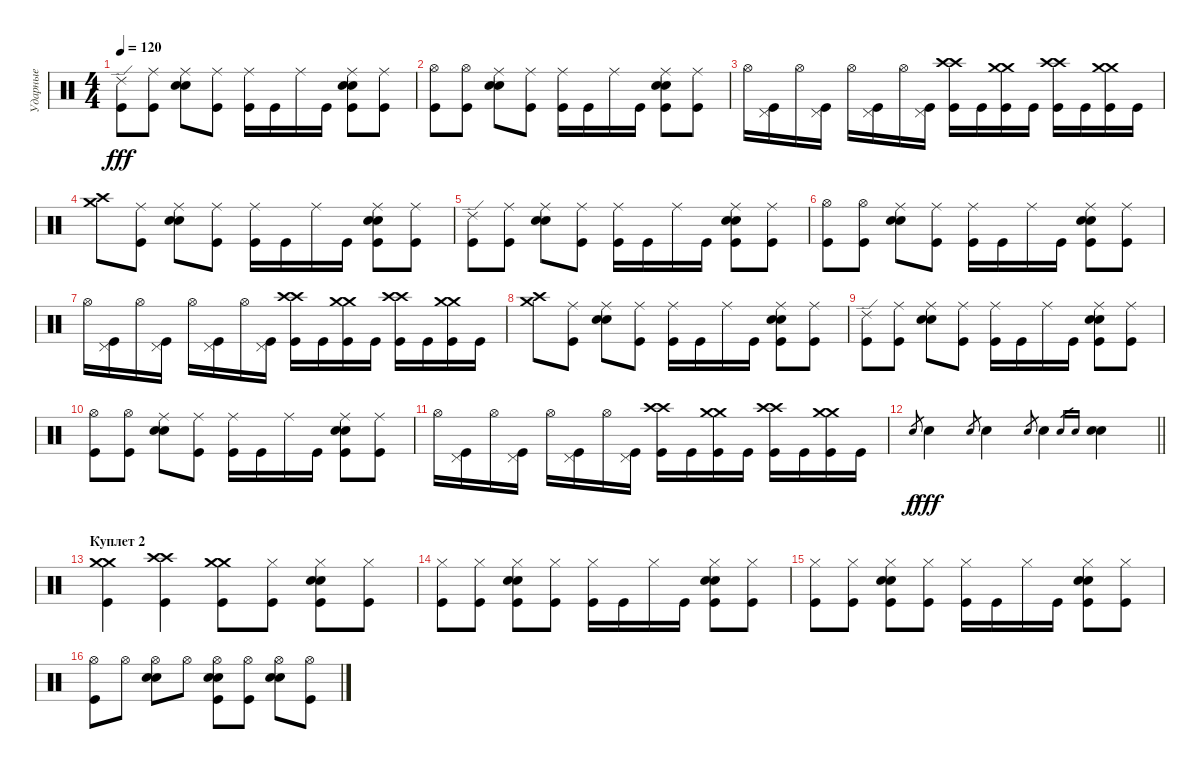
\track ("Ударные" "Ударные") {instrument percussion}
\staff {score}
\articulation defaults
\ts (4 4)
\tempo 120
\clef neutral
\ks c
("Ride (edge) 2" "Kick (hit)").8{dy fff} ("Ride (middle)" "Kick (hit)").8 ("Ride (middle)" "Snare (hit) 2" "Electric Snare (hit)").8 ("Ride (middle)" "Kick (hit)").8 ("Ride (middle)" "Kick (hit)").16 "Kick (hit)".16 "Ride (middle)".16 "Kick (hit)".16 ("Electric Snare (hit)" "Snare (hit) 2" "Ride (middle)" "Kick (hit)").8 ("Ride (middle)" "Kick (hit)").8 |
("Hi-Hat (open)" "Kick (hit)").8 ("Hi-Hat (open)" "Kick (hit)").8 ("Ride (middle)" "Snare (hit) 2" "Electric Snare (hit)").8 ("Ride (middle)" "Kick (hit)").8 ("Ride (middle)" "Kick (hit)").16 "Kick (hit)".16 "Ride (middle)".16 "Kick (hit)".16 ("Electric Snare (hit)" "Snare (hit) 2" "Ride (middle)" "Kick (hit)").8 ("Ride (middle)" "Kick (hit)").8 |
"Hi-Hat (open)".16 ("Kick (hit)" "Pedal Hi-Hat (hit)").16 "Hi-Hat (open)".16 ("Kick (hit)" "Pedal Hi-Hat (hit)").16 "Hi-Hat (open)".16 ("Pedal Hi-Hat (hit)" "Kick (hit)").16 "Hi-Hat (open)".16 ("Pedal Hi-Hat (hit)" "Kick (hit)").16 ("Kick (hit)" "Crash high (hit)" "Crash high (hit)").16 "Kick (hit)".16 ("Kick (hit)" "Crash medium (hit)" "Crash medium (hit)").16 "Kick (hit)".16 ("Kick (hit)" "Crash high (hit)" "Crash high (hit)").16 "Kick (hit)".16 ("Kick (hit)" "Crash medium (hit)" "Crash medium (hit)").16 "Kick (hit)".16 |
("Crash high (hit)" "Crash medium (hit)").8 ("Ride (middle)" "Kick (hit)").8 ("Ride (middle)" "Snare (hit) 2" "Electric Snare (hit)").8 ("Ride (middle)" "Kick (hit)").8 ("Ride (middle)" "Kick (hit)").16 "Kick (hit)".16 "Ride (middle)".16 "Kick (hit)".16 ("Electric Snare (hit)" "Snare (hit) 2" "Ride (middle)" "Kick (hit)").8 ("Ride (middle)" "Kick (hit)").8 |
("Ride (edge) 2" "Kick (hit)").8 ("Ride (middle)" "Kick (hit)").8 ("Ride (middle)" "Snare (hit) 2" "Electric Snare (hit)").8 ("Ride (middle)" "Kick (hit)").8 ("Ride (middle)" "Kick (hit)").16 "Kick (hit)".16 "Ride (middle)".16 "Kick (hit)".16 ("Electric Snare (hit)" "Snare (hit) 2" "Ride (middle)" "Kick (hit)").8 ("Ride (middle)" "Kick (hit)").8 |
("Hi-Hat (open)" "Kick (hit)").8 ("Hi-Hat (open)" "Kick (hit)").8 ("Ride (middle)" "Snare (hit) 2" "Electric Snare (hit)").8 ("Ride (middle)" "Kick (hit)").8 ("Ride (middle)" "Kick (hit)").16 "Kick (hit)".16 "Ride (middle)".16 "Kick (hit)".16 ("Electric Snare (hit)" "Snare (hit) 2" "Ride (middle)" "Kick (hit)").8 ("Ride (middle)" "Kick (hit)").8 |
"Hi-Hat (open)".16 ("Kick (hit)" "Pedal Hi-Hat (hit)").16 "Hi-Hat (open)".16 ("Kick (hit)" "Pedal Hi-Hat (hit)").16 "Hi-Hat (open)".16 ("Pedal Hi-Hat (hit)" "Kick (hit)").16 "Hi-Hat (open)".16 ("Pedal Hi-Hat (hit)" "Kick (hit)").16 ("Kick (hit)" "Crash high (hit)" "Crash high (hit)").16 "Kick (hit)".16 ("Kick (hit)" "Crash medium (hit)" "Crash medium (hit)").16 "Kick (hit)".16 ("Kick (hit)" "Crash high (hit)" "Crash high (hit)").16 "Kick (hit)".16 ("Kick (hit)" "Crash medium (hit)" "Crash medium (hit)").16 "Kick (hit)".16 |
("Crash high (hit)" "Crash medium (hit)").8 ("Ride (middle)" "Kick (hit)").8 ("Ride (middle)" "Snare (hit) 2" "Electric Snare (hit)").8 ("Ride (middle)" "Kick (hit)").8 ("Ride (middle)" "Kick (hit)").16 "Kick (hit)".16 "Ride (middle)".16 "Kick (hit)".16 ("Electric Snare (hit)" "Snare (hit) 2" "Ride (middle)" "Kick (hit)").8 ("Ride (middle)" "Kick (hit)").8 |
("Ride (edge) 2" "Kick (hit)").8 ("Ride (middle)" "Kick (hit)").8 ("Ride (middle)" "Snare (hit) 2" "Electric Snare (hit)").8 ("Ride (middle)" "Kick (hit)").8 ("Ride (middle)" "Kick (hit)").16 "Kick (hit)".16 "Ride (middle)".16 "Kick (hit)".16 ("Electric Snare (hit)" "Snare (hit) 2" "Ride (middle)" "Kick (hit)").8 ("Ride (middle)" "Kick (hit)").8 |
("Hi-Hat (open)" "Kick (hit)").8 ("Hi-Hat (open)" "Kick (hit)").8 ("Ride (middle)" "Snare (hit) 2" "Electric Snare (hit)").8 ("Ride (middle)" "Kick (hit)").8 ("Ride (middle)" "Kick (hit)").16 "Kick (hit)".16 "Ride (middle)".16 "Kick (hit)".16 ("Electric Snare (hit)" "Snare (hit) 2" "Ride (middle)" "Kick (hit)").8 ("Ride (middle)" "Kick (hit)").8 |
"Hi-Hat (open)".16 ("Kick (hit)" "Pedal Hi-Hat (hit)").16 "Hi-Hat (open)".16 ("Kick (hit)" "Pedal Hi-Hat (hit)").16 "Hi-Hat (open)".16 ("Pedal Hi-Hat (hit)" "Kick (hit)").16 "Hi-Hat (open)".16 ("Pedal Hi-Hat (hit)" "Kick (hit)").16 ("Kick (hit)" "Crash high (hit)" "Crash high (hit)").16 "Kick (hit)".16 ("Kick (hit)" "Crash medium (hit)" "Crash medium (hit)").16 "Kick (hit)".16 ("Kick (hit)" "Crash high (hit)" "Crash high (hit)").16 "Kick (hit)".16 ("Kick (hit)" "Crash medium (hit)" "Crash medium (hit)").16 "Kick (hit)".16 |
\barLineRight lightlight "Electric Snare (hit)".8{gr dy f} "Electric Snare (hit)".4{dy fff} "Electric Snare (hit)".8{gr} "Electric Snare (hit)".4 "Electric Snare (hit)".8{gr} "Electric Snare (hit)".4 "Snare (hit) 2".16{gr} "Snare (hit) 2".16{gr}
("Snare (hit) 2" "Snare (hit) 2").4 |
\section ("" "Куплет 2")
("Crash medium (hit)" "Crash medium (hit)" "Kick (hit)").4 ("Crash high (hit)" "Crash high (hit)" "Kick (hit)").4 ("Crash medium (hit)" "Crash medium (hit)" "Kick (hit)").8 ("Hi-Hat (closed)" "Kick (hit)").8 ("Snare (hit) 2" "Electric Snare (hit)" "Kick (hit)" "Hi-Hat (closed)").8 ("Hi-Hat (closed)" "Kick (hit)").8 |
("Hi-Hat (closed)" "Kick (hit)").8 ("Hi-Hat (closed)" "Kick (hit)").8 ("Snare (hit) 2" "Electric Snare (hit)" "Kick (hit)" "Hi-Hat (closed)").8 ("Kick (hit)" "Hi-Hat (closed)").8 ("Kick (hit)" "Hi-Hat (closed)").16 "Kick (hit)".16 "Hi-Hat (closed)".16 "Kick (hit)".16 ("Snare (hit) 2" "Electric Snare (hit)" "Kick (hit)" "Hi-Hat (closed)").8 ("Kick (hit)" "Hi-Hat (closed)").8 |
("Hi-Hat (closed)" "Kick (hit)").8 ("Hi-Hat (closed)" "Kick (hit)").8 ("Snare (hit) 2" "Electric Snare (hit)" "Kick (hit)" "Hi-Hat (closed)").8 ("Kick (hit)" "Hi-Hat (closed)").8 ("Kick (hit)" "Hi-Hat (closed)").16 "Kick (hit)".16 "Hi-Hat (closed)".16 "Kick (hit)".16 ("Snare (hit) 2" "Electric Snare (hit)" "Kick (hit)" "Hi-Hat (closed)").8 ("Kick (hit)" "Hi-Hat (closed)").8 |
("Hi-Hat (open)" "Kick (hit)").8 "Hi-Hat (open)".8 ("Hi-Hat (open)" "Electric Snare (hit)" "Snare (hit) 2").8 "Hi-Hat (open)".8 ("Hi-Hat (open)" "Snare (hit) 2" "Electric Snare (hit)" "Kick (hit)").8 ("Hi-Hat (open)" "Kick (hit)").8 ("Hi-Hat (open)" "Electric Snare (hit)" "Snare (hit) 2").8 ("Hi-Hat (open)" "Kick (hit)").8
